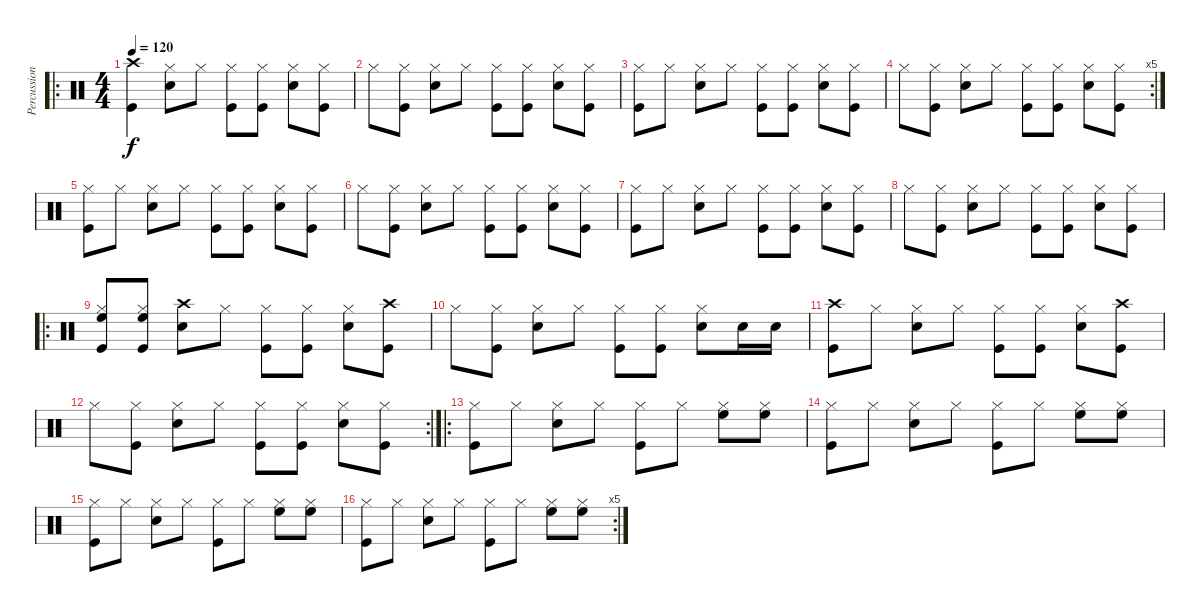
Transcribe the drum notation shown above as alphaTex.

\track ("Percussion" "Percussion") {instrument percussion}
\staff {score}
\articulation defaults
\ro
\ts (4 4)
\tempo 120
\clef neutral
\ks c
("Crash high (hit)" "Kick (hit)").4{dy f} ("Hi-Hat (closed)" "Snare (hit) 2").8 "Hi-Hat (closed)".8 ("Hi-Hat (closed)" "Kick (hit)").8 ("Hi-Hat (closed)" "Kick (hit)").8 ("Hi-Hat (closed)" "Snare (hit) 2").8 ("Hi-Hat (closed)" "Kick (hit)").8 |
"Hi-Hat (closed)".8 ("Hi-Hat (closed)" "Kick (hit)").8 ("Hi-Hat (closed)" "Snare (hit) 2").8 "Hi-Hat (closed)".8 ("Hi-Hat (closed)" "Kick (hit)").8 ("Hi-Hat (closed)" "Kick (hit)").8 ("Hi-Hat (closed)" "Snare (hit) 2").8 ("Hi-Hat (closed)" "Kick (hit)").8 |
("Hi-Hat (closed)" "Kick (hit)").8 "Hi-Hat (closed)".8 ("Hi-Hat (closed)" "Snare (hit) 2").8 "Hi-Hat (closed)".8 ("Hi-Hat (closed)" "Kick (hit)").8 ("Hi-Hat (closed)" "Kick (hit)").8 ("Hi-Hat (closed)" "Snare (hit) 2").8 ("Hi-Hat (closed)" "Kick (hit)").8 |
\rc 5 "Hi-Hat (closed)".8
("Hi-Hat (closed)" "Kick (hit)").8 ("Hi-Hat (closed)" "Snare (hit) 2").8 "Hi-Hat (closed)".8 ("Hi-Hat (closed)" "Kick (hit)").8 ("Hi-Hat (closed)" "Kick (hit)").8 ("Hi-Hat (closed)" "Snare (hit) 2").8 ("Hi-Hat (closed)" "Kick (hit)").8 |
("Hi-Hat (closed)" "Kick (hit)").8 "Hi-Hat (closed)".8 ("Hi-Hat (closed)" "Snare (hit) 2").8 "Hi-Hat (closed)".8 ("Hi-Hat (closed)" "Kick (hit)").8 ("Hi-Hat (closed)" "Kick (hit)").8 ("Hi-Hat (closed)" "Snare (hit) 2").8 ("Hi-Hat (closed)" "Kick (hit)").8 |
"Hi-Hat (closed)".8 ("Hi-Hat (closed)" "Kick (hit)").8 ("Hi-Hat (closed)" "Snare (hit) 2").8 "Hi-Hat (closed)".8 ("Hi-Hat (closed)" "Kick (hit)").8 ("Hi-Hat (closed)" "Kick (hit)").8 ("Hi-Hat (closed)" "Snare (hit) 2").8 ("Hi-Hat (closed)" "Kick (hit)").8 |
("Hi-Hat (closed)" "Kick (hit)").8 "Hi-Hat (closed)".8 ("Hi-Hat (closed)" "Snare (hit) 2").8 "Hi-Hat (closed)".8 ("Hi-Hat (closed)" "Kick (hit)").8 ("Hi-Hat (closed)" "Kick (hit)").8 ("Hi-Hat (closed)" "Snare (hit) 2").8 ("Hi-Hat (closed)" "Kick (hit)").8 |
"Hi-Hat (closed)".8 ("Hi-Hat (closed)" "Kick (hit)").8 ("Hi-Hat (closed)" "Snare (hit) 2").8 "Hi-Hat (closed)".8 ("Hi-Hat (closed)" "Kick (hit)").8 ("Hi-Hat (closed)" "Kick (hit)").8 ("Hi-Hat (closed)" "Snare (hit) 2").8 ("Hi-Hat (closed)" "Kick (hit)").8 |
\ro
("Hi-Hat (closed)" "High Floor Tom (hit)" "Kick (hit)").8 ("Hi-Hat (closed)" "High Floor Tom (hit)" "Kick (hit)").8 ("Crash high (hit)" "Snare (hit) 2").8 "Hi-Hat (closed)".8 ("Hi-Hat (closed)" "Kick (hit)").8 ("Hi-Hat (closed)" "Kick (hit)").8 ("Hi-Hat (closed)" "Snare (hit) 2").8 ("Crash high (hit)" "Kick (hit)").8 |
"Hi-Hat (closed)".8 ("Hi-Hat (closed)" "Kick (hit)").8 ("Hi-Hat (closed)" "Snare (hit) 2").8 "Hi-Hat (closed)".8 ("Hi-Hat (closed)" "Kick (hit)").8 ("Hi-Hat (closed)" "Kick (hit)").8 ("Hi-Hat (closed)" "Snare (hit) 2").8 "Snare (hit) 2".16 "Snare (hit) 2".16 |
("Crash high (hit)" "Kick (hit)").8 "Hi-Hat (closed)".8 ("Hi-Hat (closed)" "Snare (hit) 2").8 "Hi-Hat (closed)".8 ("Hi-Hat (closed)" "Kick (hit)").8 ("Hi-Hat (closed)" "Kick (hit)").8 ("Hi-Hat (closed)" "Snare (hit) 2").8 ("Crash high (hit)" "Kick (hit)").8 |
\rc 2 "Hi-Hat (closed)".8
("Hi-Hat (closed)" "Kick (hit)").8 ("Hi-Hat (closed)" "Snare (hit) 2").8 "Hi-Hat (closed)".8 ("Hi-Hat (closed)" "Kick (hit)").8 ("Hi-Hat (closed)" "Kick (hit)").8 ("Hi-Hat (closed)" "Snare (hit) 2").8 ("Hi-Hat (closed)" "Kick (hit)").8 |
\ro
("Hi-Hat (closed)" "Kick (hit)").8 "Hi-Hat (closed)".8 ("Hi-Hat (closed)" "Snare (hit) 2").8 "Hi-Hat (closed)".8 ("Hi-Hat (closed)" "Kick (hit)").8 "Hi-Hat (closed)".8 ("Hi-Hat (closed)" "High Floor Tom (hit)").8 ("Hi-Hat (closed)" "High Floor Tom (hit)").8 |
("Hi-Hat (closed)" "Kick (hit)").8 "Hi-Hat (closed)".8 ("Hi-Hat (closed)" "Snare (hit) 2").8 "Hi-Hat (closed)".8 ("Hi-Hat (closed)" "Kick (hit)").8 "Hi-Hat (closed)".8 ("Hi-Hat (closed)" "High Floor Tom (hit)").8 ("Hi-Hat (closed)" "High Floor Tom (hit)").8 |
("Hi-Hat (closed)" "Kick (hit)").8 "Hi-Hat (closed)".8 ("Hi-Hat (closed)" "Snare (hit) 2").8 "Hi-Hat (closed)".8 ("Hi-Hat (closed)" "Kick (hit)").8 "Hi-Hat (closed)".8 ("Hi-Hat (closed)" "High Floor Tom (hit)").8 ("Hi-Hat (closed)" "High Floor Tom (hit)").8 |
\rc 5
("Hi-Hat (closed)" "Kick (hit)").8 "Hi-Hat (closed)".8 ("Hi-Hat (closed)" "Snare (hit) 2").8 "Hi-Hat (closed)".8 ("Hi-Hat (closed)" "Kick (hit)").8 "Hi-Hat (closed)".8 ("Hi-Hat (closed)" "High Floor Tom (hit)").8 ("Hi-Hat (closed)" "High Floor Tom (hit)").8
